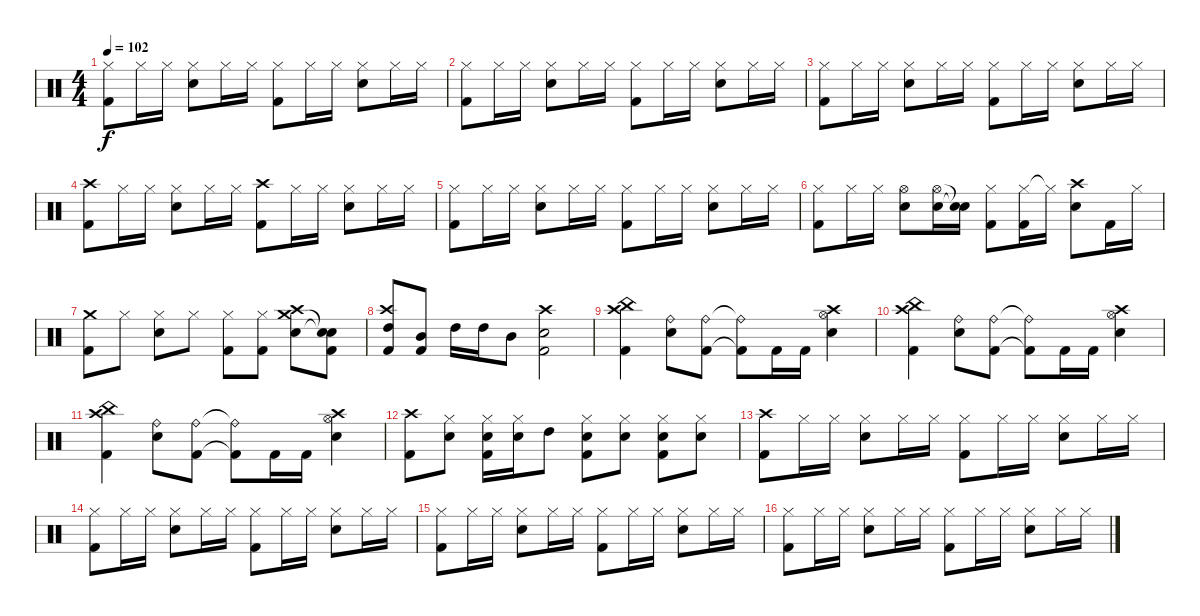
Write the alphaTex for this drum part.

\track "" {instrument percussion}
\staff {score}
\articulation defaults
\ts (4 4)
\tempo 102
\clef neutral
\ks c
("Hi-Hat (closed)" "Kick (hit) 2").8{dy f} "Hi-Hat (closed)".16 "Hi-Hat (closed)".16 ("Hi-Hat (closed)" "Snare (hit) 2").8 "Hi-Hat (closed)".16 "Hi-Hat (closed)".16 ("Hi-Hat (closed)" "Kick (hit) 2").8 "Hi-Hat (closed)".16 "Hi-Hat (closed)".16 ("Hi-Hat (closed)" "Snare (hit) 2").8 "Hi-Hat (closed)".16 "Hi-Hat (closed)".16 |
("Hi-Hat (closed)" "Kick (hit) 2").8 "Hi-Hat (closed)".16 "Hi-Hat (closed)".16 ("Hi-Hat (closed)" "Snare (hit) 2").8 "Hi-Hat (closed)".16 "Hi-Hat (closed)".16 ("Hi-Hat (closed)" "Kick (hit) 2").8 "Hi-Hat (closed)".16 "Hi-Hat (closed)".16 ("Hi-Hat (closed)" "Snare (hit) 2").8 "Hi-Hat (closed)".16 "Hi-Hat (closed)".16 |
("Hi-Hat (closed)" "Kick (hit) 2").8 "Hi-Hat (closed)".16 "Hi-Hat (closed)".16 ("Hi-Hat (closed)" "Snare (hit) 2").8 "Hi-Hat (closed)".16 "Hi-Hat (closed)".16 ("Hi-Hat (closed)" "Kick (hit) 2").8 "Hi-Hat (closed)".16 "Hi-Hat (closed)".16 ("Hi-Hat (closed)" "Snare (hit) 2").8 "Hi-Hat (closed)".16 "Hi-Hat (closed)".16 |
("Crash high (hit)" "Kick (hit) 2").8 "Hi-Hat (closed)".16 "Hi-Hat (closed)".16{txt ""} ("Hi-Hat (closed)" "Snare (hit) 2").8 "Hi-Hat (closed)".16 "Hi-Hat (closed)".16 ("Crash high (hit)" "Kick (hit) 2").8 "Hi-Hat (closed)".16 "Hi-Hat (closed)".16 ("Hi-Hat (closed)" "Snare (hit) 2").8 "Hi-Hat (closed)".16 "Hi-Hat (closed)".16 |
("Hi-Hat (closed)" "Kick (hit) 2").8 "Hi-Hat (closed)".16 "Hi-Hat (closed)".16 ("Hi-Hat (closed)" "Snare (hit) 2").8 "Hi-Hat (closed)".16 "Hi-Hat (closed)".16 ("Hi-Hat (closed)" "Kick (hit) 2").8 "Hi-Hat (closed)".16 "Hi-Hat (closed)".16 ("Hi-Hat (closed)" "Snare (hit) 2").8 "Hi-Hat (closed)".16 "Hi-Hat (closed)".16 |
("Hi-Hat (closed)" "Kick (hit) 2").8 "Hi-Hat (closed)".16 "Hi-Hat (closed)".16 ("Hi-Hat (open)" "Snare (hit) 2").8 ("Hi-Hat (open)" "Snare (hit) 2").16 ("Snare (hit)"{t} "Snare (hit)"{t}).16 ("Hi-Hat (closed)" "Kick (hit) 2").8 ("Hi-Hat (closed)" "Kick (hit) 2").16 "Hi-Hat (closed)"{t}.16 ("Crash high (hit)" "Snare (hit) 2").8 "Kick (hit) 2".16 "Hi-Hat (closed)".16 |
("Crash medium (hit)" "Kick (hit) 2").8 "Hi-Hat (closed)".8 ("Hi-Hat (closed)" "Snare (hit) 2").8 "Hi-Hat (closed)".8 ("Hi-Hat (closed)" "Kick (hit) 2").8 ("Hi-Hat (closed)" "Kick (hit) 2").8 ("Snare (hit) 2" "Crash medium (hit)" "Crash high (hit)").8 ("Snare (hit)"{t} "Snare (hit)"{t} "Kick (hit) 2").8 |
("High Tom (hit)" "Crash high (hit)" "Kick (hit) 2").8 ("Mid Tom (hit)" "Kick (hit) 2").8 "High Tom (hit)".16 "High Tom (hit)".16 "Mid Tom (hit)".8 ("Snare (hit) 2" "Crash high (hit)" "Kick (hit) 2").2 |
("China (hit)" "Crash high (hit)" "Kick (hit) 2").4 ("Ride (bell)" "Snare (hit) 2").8 ("Ride (bell)" "Kick (hit) 2").8 ("Ride (bell)"{t} "Kick (hit) 2"{t}).8 "Kick (hit) 2".16 "Kick (hit) 2".16 ("Crash high (hit)" "Hi-Hat (open)" "Snare (hit) 2").4 |
("China (hit)" "Crash high (hit)" "Kick (hit) 2").4 ("Ride (bell)" "Snare (hit) 2").8 ("Ride (bell)" "Kick (hit) 2").8 ("Ride (bell)"{t} "Kick (hit) 2"{t}).8 "Kick (hit) 2".16 "Kick (hit) 2".16 ("Crash high (hit)" "Hi-Hat (open)" "Snare (hit) 2").4 |
("China (hit)" "Crash high (hit)" "Kick (hit) 2").4 ("Ride (bell)" "Snare (hit) 2").8 ("Ride (bell)" "Kick (hit) 2").8 ("Ride (bell)"{t} "Kick (hit) 2"{t}).8 "Kick (hit) 2".16 "Kick (hit) 2".16 ("Crash high (hit)" "Hi-Hat (open)" "Snare (hit) 2").4 |
("Crash high (hit)" "Kick (hit) 2").8 ("Hi-Hat (closed)" "Snare (hit) 2").8 ("Hi-Hat (closed)" "Snare (hit) 2" "Kick (hit) 2").16 ("Hi-Hat (closed)" "Snare (hit) 2").16 "High Tom (hit)".8 ("Snare (hit) 2" "Hi-Hat (closed)" "Kick (hit) 2").8 ("Snare (hit) 2" "Hi-Hat (closed)").8 ("Snare (hit) 2" "Hi-Hat (closed)" "Kick (hit) 2").8 ("Snare (hit) 2" "Hi-Hat (closed)").8 |
("Crash high (hit)" "Kick (hit) 2").8 "Hi-Hat (closed)".16 "Hi-Hat (closed)".16 ("Hi-Hat (closed)" "Snare (hit) 2").8 "Hi-Hat (closed)".16 "Hi-Hat (closed)".16 ("Hi-Hat (closed)" "Kick (hit) 2").8 "Hi-Hat (closed)".16 "Hi-Hat (closed)".16 ("Hi-Hat (closed)" "Snare (hit) 2").8 "Hi-Hat (closed)".16 "Hi-Hat (closed)".16 |
("Hi-Hat (closed)" "Kick (hit) 2").8 "Hi-Hat (closed)".16 "Hi-Hat (closed)".16 ("Hi-Hat (closed)" "Snare (hit) 2").8 "Hi-Hat (closed)".16 "Hi-Hat (closed)".16 ("Hi-Hat (closed)" "Kick (hit) 2").8 "Hi-Hat (closed)".16 "Hi-Hat (closed)".16 ("Hi-Hat (closed)" "Snare (hit) 2").8 "Hi-Hat (closed)".16 "Hi-Hat (closed)".16 |
("Hi-Hat (closed)" "Kick (hit) 2").8 "Hi-Hat (closed)".16 "Hi-Hat (closed)".16 ("Hi-Hat (closed)" "Snare (hit) 2").8 "Hi-Hat (closed)".16 "Hi-Hat (closed)".16 ("Hi-Hat (closed)" "Kick (hit) 2").8 "Hi-Hat (closed)".16 "Hi-Hat (closed)".16 ("Hi-Hat (closed)" "Snare (hit) 2").8 "Hi-Hat (closed)".16 "Hi-Hat (closed)".16 |
("Hi-Hat (closed)" "Kick (hit) 2").8 "Hi-Hat (closed)".16 "Hi-Hat (closed)".16 ("Hi-Hat (closed)" "Snare (hit) 2").8 "Hi-Hat (closed)".16 "Hi-Hat (closed)".16 ("Hi-Hat (closed)" "Kick (hit) 2").8 "Hi-Hat (closed)".16 "Hi-Hat (closed)".16 ("Hi-Hat (closed)" "Snare (hit) 2").8 "Hi-Hat (closed)".16 "Hi-Hat (closed)".16
